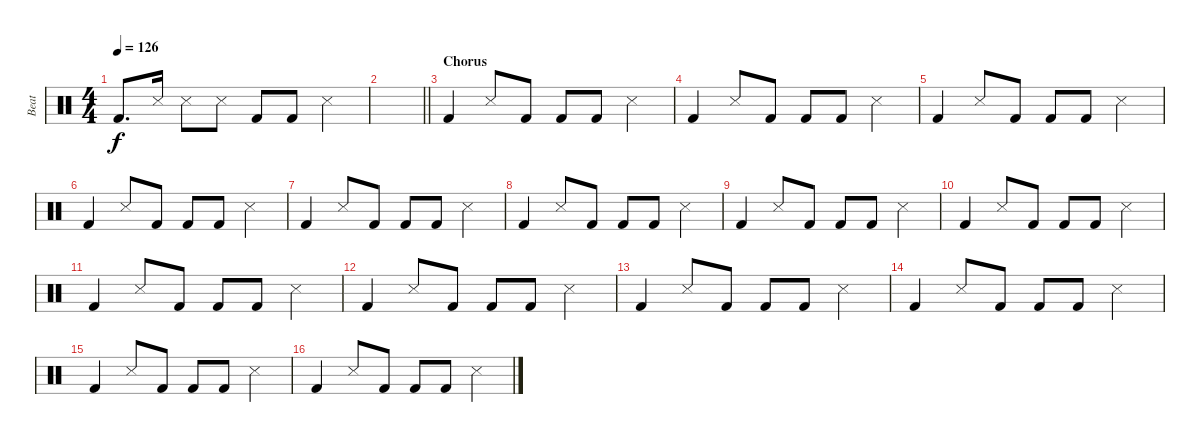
\track ("Beat" "Beat") {instrument percussion}
\staff {score}
\articulation defaults
\ts (4 4)
\tempo 126
\clef neutral
\ks c "Kick (hit) 2".8{d dy f} "Snare (side stick) 3".16 "Snare (side stick) 3".8 "Snare (side stick) 3".8 "Kick (hit) 2".8 "Kick (hit) 2".8 "Snare (side stick) 3".4
|
\barLineRight lightlight
|
\section ("" "Chorus")
"Kick (hit) 2".4 "Snare (side stick) 3".8 "Kick (hit) 2".8 "Kick (hit) 2".8 "Kick (hit) 2".8 "Snare (side stick) 3".4 |
"Kick (hit) 2".4 "Snare (side stick) 3".8 "Kick (hit) 2".8 "Kick (hit) 2".8 "Kick (hit) 2".8 "Snare (side stick) 3".4 |
"Kick (hit) 2".4 "Snare (side stick) 3".8 "Kick (hit) 2".8 "Kick (hit) 2".8 "Kick (hit) 2".8 "Snare (side stick) 3".4 |
"Kick (hit) 2".4 "Snare (side stick) 3".8 "Kick (hit) 2".8 "Kick (hit) 2".8 "Kick (hit) 2".8 "Snare (side stick) 3".4 |
"Kick (hit) 2".4 "Snare (side stick) 3".8 "Kick (hit) 2".8 "Kick (hit) 2".8 "Kick (hit) 2".8 "Snare (side stick) 3".4 |
"Kick (hit) 2".4 "Snare (side stick) 3".8 "Kick (hit) 2".8 "Kick (hit) 2".8 "Kick (hit) 2".8 "Snare (side stick) 3".4 |
"Kick (hit) 2".4 "Snare (side stick) 3".8 "Kick (hit) 2".8 "Kick (hit) 2".8 "Kick (hit) 2".8 "Snare (side stick) 3".4 |
"Kick (hit) 2".4 "Snare (side stick) 3".8 "Kick (hit) 2".8 "Kick (hit) 2".8 "Kick (hit) 2".8 "Snare (side stick) 3".4 |
"Kick (hit) 2".4 "Snare (side stick) 3".8 "Kick (hit) 2".8 "Kick (hit) 2".8 "Kick (hit) 2".8 "Snare (side stick) 3".4 |
"Kick (hit) 2".4 "Snare (side stick) 3".8 "Kick (hit) 2".8 "Kick (hit) 2".8 "Kick (hit) 2".8 "Snare (side stick) 3".4 |
"Kick (hit) 2".4 "Snare (side stick) 3".8 "Kick (hit) 2".8 "Kick (hit) 2".8 "Kick (hit) 2".8 "Snare (side stick) 3".4 |
"Kick (hit) 2".4 "Snare (side stick) 3".8 "Kick (hit) 2".8 "Kick (hit) 2".8 "Kick (hit) 2".8 "Snare (side stick) 3".4 |
"Kick (hit) 2".4 "Snare (side stick) 3".8 "Kick (hit) 2".8 "Kick (hit) 2".8 "Kick (hit) 2".8 "Snare (side stick) 3".4 |
"Kick (hit) 2".4 "Snare (side stick) 3".8 "Kick (hit) 2".8 "Kick (hit) 2".8 "Kick (hit) 2".8 "Snare (side stick) 3".4
